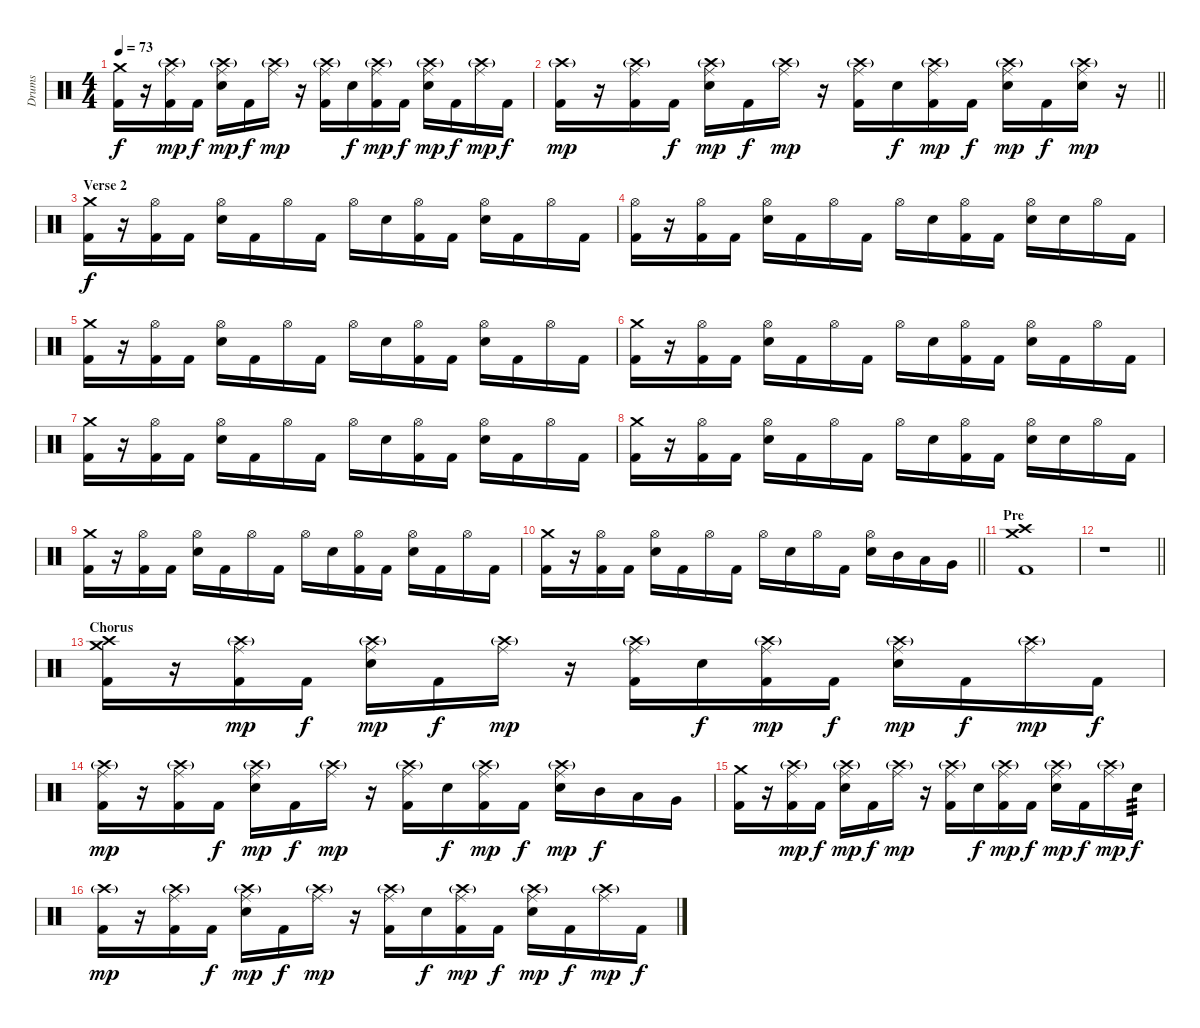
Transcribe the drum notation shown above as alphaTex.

\track ("Drums" "Drums") {instrument percussion}
\staff {score}
\articulation defaults
\ts (4 4)
\tempo 73
\clef neutral
\ks c
("Crash medium (hit)" "Kick (hit) 2").16{dy f} r.16 ("Crash high (hit)"{g} "Ride (middle)" "Kick (hit) 2").16{dy mp} "Kick (hit) 2".16{dy f} ("Crash high (hit)"{g} "Ride (middle)" "Electric Snare (hit)").16{dy mp} "Kick (hit) 2".16{dy f} ("Crash high (hit)"{g} "Ride (middle)").16{dy mp} r.16 ("Crash high (hit)"{g} "Ride (middle)" "Kick (hit) 2").16 "Electric Snare (hit)".16{dy f} ("Crash high (hit)"{g} "Ride (middle)" "Kick (hit) 2").16{dy mp} "Kick (hit) 2".16{dy f} ("Crash high (hit)"{g} "Ride (middle)" "Electric Snare (hit)").16{dy mp} "Kick (hit) 2".16{dy f} ("Crash high (hit)"{g} "Ride (middle)").16{dy mp} "Kick (hit) 2".16{dy f} |
\barLineRight lightlight
("Crash high (hit)"{g} "Kick (hit) 2").16{dy mp} r.16 ("Crash high (hit)"{g} "Ride (middle)" "Kick (hit) 2").16 "Kick (hit) 2".16{dy f} ("Crash high (hit)"{g} "Ride (middle)" "Electric Snare (hit)").16{dy mp} "Kick (hit) 2".16{dy f} ("Crash high (hit)"{g} "Ride (middle)").16{dy mp} r.16 ("Crash high (hit)"{g} "Ride (middle)" "Kick (hit) 2").16 "Electric Snare (hit)".16{dy f} ("Crash high (hit)"{g} "Ride (middle)" "Kick (hit) 2").16{dy mp} "Kick (hit) 2".16{dy f} ("Crash high (hit)"{g} "Ride (middle)" "Electric Snare (hit)").16{dy mp} "Kick (hit) 2".16{dy f} ("Crash high (hit)"{g} "Ride (middle)" "Electric Snare (hit)").16{dy mp} r.16 |
\section ("" "Verse 2")
("Crash medium (hit)" "Kick (hit) 2").16{dy f} r.16 ("Hi-Hat (open)" "Kick (hit) 2").16 "Kick (hit) 2".16 ("Hi-Hat (open)" "Electric Snare (hit)").16 "Kick (hit) 2".16 "Hi-Hat (open)".16 "Kick (hit) 2".16 "Hi-Hat (open)".16 "Electric Snare (hit)".16 ("Hi-Hat (open)" "Kick (hit) 2").16 "Kick (hit) 2".16 ("Hi-Hat (open)" "Electric Snare (hit)").16 "Kick (hit) 2".16 "Hi-Hat (open)".16 "Kick (hit) 2".16 |
("Hi-Hat (open)" "Kick (hit) 2").16 r.16 ("Hi-Hat (open)" "Kick (hit) 2").16 "Kick (hit) 2".16 ("Hi-Hat (open)" "Electric Snare (hit)").16 "Kick (hit) 2".16 "Hi-Hat (open)".16 "Kick (hit) 2".16 "Hi-Hat (open)".16 "Electric Snare (hit)".16 ("Hi-Hat (open)" "Kick (hit) 2").16 "Kick (hit) 2".16 ("Hi-Hat (open)" "Electric Snare (hit)").16 "Electric Snare (hit)".16 "Hi-Hat (open)".16 "Kick (hit) 2".16 |
("Crash medium (hit)" "Kick (hit) 2").16 r.16 ("Hi-Hat (open)" "Kick (hit) 2").16 "Kick (hit) 2".16 ("Hi-Hat (open)" "Electric Snare (hit)").16 "Kick (hit) 2".16 "Hi-Hat (open)".16 "Kick (hit) 2".16 "Hi-Hat (open)".16 "Electric Snare (hit)".16 ("Hi-Hat (open)" "Kick (hit) 2").16 "Kick (hit) 2".16 ("Hi-Hat (open)" "Electric Snare (hit)").16 "Kick (hit) 2".16 "Hi-Hat (open)".16 "Kick (hit) 2".16 |
("Crash medium (hit)" "Kick (hit) 2").16 r.16 ("Hi-Hat (open)" "Kick (hit) 2").16 "Kick (hit) 2".16 ("Hi-Hat (open)" "Electric Snare (hit)").16 "Kick (hit) 2".16 "Hi-Hat (open)".16 "Kick (hit) 2".16 "Hi-Hat (open)".16 "Electric Snare (hit)".16 ("Hi-Hat (open)" "Kick (hit) 2").16 "Kick (hit) 2".16 ("Hi-Hat (open)" "Electric Snare (hit)").16 "Kick (hit) 2".16 "Hi-Hat (open)".16 "Kick (hit) 2".16 |
("Crash medium (hit)" "Kick (hit) 2").16 r.16 ("Hi-Hat (open)" "Kick (hit) 2").16 "Kick (hit) 2".16 ("Hi-Hat (open)" "Electric Snare (hit)").16 "Kick (hit) 2".16 "Hi-Hat (open)".16 "Kick (hit) 2".16 "Hi-Hat (open)".16 "Electric Snare (hit)".16 ("Hi-Hat (open)" "Kick (hit) 2").16 "Kick (hit) 2".16 ("Hi-Hat (open)" "Electric Snare (hit)").16 "Kick (hit) 2".16 "Hi-Hat (open)".16 "Kick (hit) 2".16 |
("Crash medium (hit)" "Kick (hit) 2").16 r.16 ("Hi-Hat (open)" "Kick (hit) 2").16 "Kick (hit) 2".16 ("Hi-Hat (open)" "Electric Snare (hit)").16 "Kick (hit) 2".16 "Hi-Hat (open)".16 "Kick (hit) 2".16 "Hi-Hat (open)".16 "Electric Snare (hit)".16 ("Hi-Hat (open)" "Kick (hit) 2").16 "Kick (hit) 2".16 ("Hi-Hat (open)" "Electric Snare (hit)").16 "Electric Snare (hit)".16 "Hi-Hat (open)".16 "Kick (hit) 2".16 |
("Crash medium (hit)" "Kick (hit) 2").16 r.16 ("Hi-Hat (open)" "Kick (hit) 2").16 "Kick (hit) 2".16 ("Hi-Hat (open)" "Electric Snare (hit)").16 "Kick (hit) 2".16 "Hi-Hat (open)".16 "Kick (hit) 2".16 "Hi-Hat (open)".16 "Electric Snare (hit)".16 ("Hi-Hat (open)" "Kick (hit) 2").16 "Kick (hit) 2".16 ("Hi-Hat (open)" "Electric Snare (hit)").16 "Kick (hit) 2".16 "Hi-Hat (open)".16 "Kick (hit) 2".16 |
\barLineRight lightlight
("Crash medium (hit)" "Kick (hit) 2").16 r.16 ("Hi-Hat (open)" "Kick (hit) 2").16 "Kick (hit) 2".16 ("Hi-Hat (open)" "Electric Snare (hit)").16 "Kick (hit) 2".16 "Hi-Hat (open)".16 "Kick (hit) 2".16 "Hi-Hat (open)".16 "Electric Snare (hit)".16 "Hi-Hat (open)".16 "Kick (hit) 2".16 ("Hi-Hat (open)" "Electric Snare (hit)").16 "Mid Tom (hit)".16 "Low Tom (hit)".16 "Very Low Tom (hit)".16 |
\section ("" "Pre")
("Crash medium (hit)" "Crash high (hit)" "Kick (hit) 2").1 |
\barLineRight lightlight
r.1 |
\section ("" "Chorus")
("Crash medium (hit)" "Crash high (hit)" "Kick (hit) 2").16 r.16 ("Crash high (hit)"{g} "Ride (middle)" "Kick (hit) 2").16{dy mp} "Kick (hit) 2".16{dy f} ("Crash high (hit)"{g} "Ride (middle)" "Electric Snare (hit)").16{dy mp} "Kick (hit) 2".16{dy f} ("Crash high (hit)"{g} "Ride (middle)").16{dy mp} r.16 ("Crash high (hit)"{g} "Ride (middle)" "Kick (hit) 2").16 "Electric Snare (hit)".16{dy f} ("Crash high (hit)"{g} "Ride (middle)" "Kick (hit) 2").16{dy mp} "Kick (hit) 2".16{dy f} ("Crash high (hit)"{g} "Ride (middle)" "Electric Snare (hit)").16{dy mp} "Kick (hit) 2".16{dy f} ("Crash high (hit)"{g} "Ride (middle)").16{dy mp} "Kick (hit) 2".16{dy f} |
("Crash high (hit)"{g} "Ride (middle)" "Kick (hit) 2").16{dy mp} r.16 ("Crash high (hit)"{g} "Ride (middle)" "Kick (hit) 2").16 "Kick (hit) 2".16{dy f} ("Crash high (hit)"{g} "Ride (middle)" "Electric Snare (hit)").16{dy mp} "Kick (hit) 2".16{dy f} ("Crash high (hit)"{g} "Ride (middle)").16{dy mp} r.16 ("Crash high (hit)"{g} "Ride (middle)" "Kick (hit) 2").16 "Electric Snare (hit)".16{dy f} ("Crash high (hit)"{g} "Ride (middle)" "Kick (hit) 2").16{dy mp} "Kick (hit) 2".16{dy f} ("Crash high (hit)"{g} "Ride (middle)" "Electric Snare (hit)").16{dy mp} "Mid Tom (hit)".16{dy f} "Low Tom (hit)".16 "Very Low Tom (hit)".16 |
("Crash medium (hit)" "Kick (hit) 2").16 r.16 ("Crash high (hit)"{g} "Ride (middle)" "Kick (hit) 2").16{dy mp} "Kick (hit) 2".16{dy f} ("Crash high (hit)"{g} "Ride (middle)" "Electric Snare (hit)").16{dy mp} "Kick (hit) 2".16{dy f} ("Crash high (hit)"{g} "Ride (middle)").16{dy mp} r.16 ("Crash high (hit)"{g} "Ride (middle)" "Kick (hit) 2").16 "Electric Snare (hit)".16{dy f} ("Crash high (hit)"{g} "Ride (middle)" "Kick (hit) 2").16{dy mp} "Kick (hit) 2".16{dy f} ("Crash high (hit)"{g} "Ride (middle)" "Electric Snare (hit)").16{dy mp} "Kick (hit) 2".16{dy f} ("Crash high (hit)"{g} "Ride (middle)").16{dy mp} "Electric Snare (hit)".16{tp 3 dy f} |
("Crash high (hit)"{g} "Kick (hit) 2").16{dy mp} r.16 ("Crash high (hit)"{g} "Ride (middle)" "Kick (hit) 2").16 "Kick (hit) 2".16{dy f} ("Crash high (hit)"{g} "Ride (middle)" "Electric Snare (hit)").16{dy mp} "Kick (hit) 2".16{dy f} ("Crash high (hit)"{g} "Ride (middle)").16{dy mp} r.16 ("Crash high (hit)"{g} "Ride (middle)" "Kick (hit) 2").16 "Electric Snare (hit)".16{dy f} ("Crash high (hit)"{g} "Ride (middle)" "Kick (hit) 2").16{dy mp} "Kick (hit) 2".16{dy f} ("Crash high (hit)"{g} "Ride (middle)" "Electric Snare (hit)").16{dy mp} "Kick (hit) 2".16{dy f} ("Crash high (hit)"{g} "Ride (middle)").16{dy mp} "Kick (hit) 2".16{dy f}
